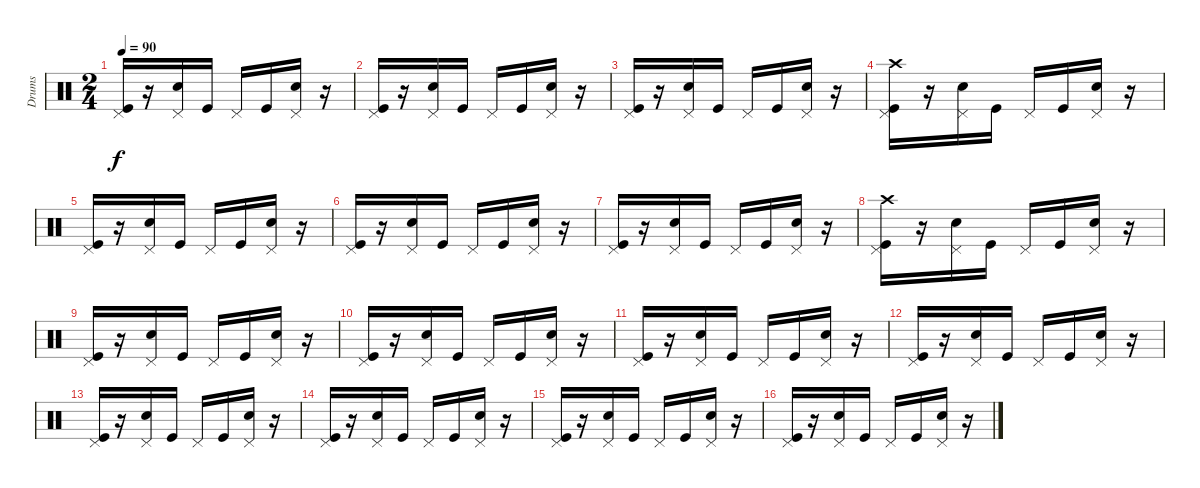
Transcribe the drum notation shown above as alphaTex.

\track ("Drums" "Drums") {instrument percussion}
\staff {score}
\articulation defaults
\ts (2 4)
\tempo 90
\clef neutral
\ks c
("Kick (hit)" "Pedal Hi-Hat (hit)").16{dy f} r.16 ("Snare (hit) 2" "Pedal Hi-Hat (hit)").16 "Kick (hit)".16 "Pedal Hi-Hat (hit)".16 "Kick (hit)".16 ("Snare (hit) 2" "Pedal Hi-Hat (hit)").16 r.16 |
("Kick (hit)" "Pedal Hi-Hat (hit)").16 r.16 ("Snare (hit) 2" "Pedal Hi-Hat (hit)").16 "Kick (hit)".16 "Pedal Hi-Hat (hit)".16 "Kick (hit)".16 ("Snare (hit) 2" "Pedal Hi-Hat (hit)").16 r.16 |
("Kick (hit)" "Pedal Hi-Hat (hit)").16 r.16 ("Snare (hit) 2" "Pedal Hi-Hat (hit)").16 "Kick (hit)".16 "Pedal Hi-Hat (hit)".16 "Kick (hit)".16 ("Snare (hit) 2" "Pedal Hi-Hat (hit)").16 r.16 |
("Crash high (hit)" "Kick (hit)" "Pedal Hi-Hat (hit)").16 r.16 ("Snare (hit) 2" "Pedal Hi-Hat (hit)").16 "Kick (hit)".16 "Pedal Hi-Hat (hit)".16 "Kick (hit)".16 ("Snare (hit) 2" "Pedal Hi-Hat (hit)").16 r.16 |
("Kick (hit)" "Pedal Hi-Hat (hit)").16 r.16 ("Snare (hit) 2" "Pedal Hi-Hat (hit)").16 "Kick (hit)".16 "Pedal Hi-Hat (hit)".16 "Kick (hit)".16 ("Snare (hit) 2" "Pedal Hi-Hat (hit)").16 r.16 |
("Kick (hit)" "Pedal Hi-Hat (hit)").16 r.16 ("Snare (hit) 2" "Pedal Hi-Hat (hit)").16 "Kick (hit)".16 "Pedal Hi-Hat (hit)".16 "Kick (hit)".16 ("Snare (hit) 2" "Pedal Hi-Hat (hit)").16 r.16 |
("Kick (hit)" "Pedal Hi-Hat (hit)").16 r.16 ("Snare (hit) 2" "Pedal Hi-Hat (hit)").16 "Kick (hit)".16 "Pedal Hi-Hat (hit)".16 "Kick (hit)".16 ("Snare (hit) 2" "Pedal Hi-Hat (hit)").16 r.16 |
("Crash high (hit)" "Kick (hit)" "Pedal Hi-Hat (hit)").16 r.16 ("Snare (hit) 2" "Pedal Hi-Hat (hit)").16 "Kick (hit)".16 "Pedal Hi-Hat (hit)".16 "Kick (hit)".16 ("Snare (hit) 2" "Pedal Hi-Hat (hit)").16 r.16 |
("Kick (hit)" "Pedal Hi-Hat (hit)").16 r.16 ("Snare (hit) 2" "Pedal Hi-Hat (hit)").16 "Kick (hit)".16 "Pedal Hi-Hat (hit)".16 "Kick (hit)".16 ("Snare (hit) 2" "Pedal Hi-Hat (hit)").16 r.16 |
("Kick (hit)" "Pedal Hi-Hat (hit)").16 r.16 ("Snare (hit) 2" "Pedal Hi-Hat (hit)").16 "Kick (hit)".16 "Pedal Hi-Hat (hit)".16 "Kick (hit)".16 ("Snare (hit) 2" "Pedal Hi-Hat (hit)").16 r.16 |
("Kick (hit)" "Pedal Hi-Hat (hit)").16 r.16 ("Snare (hit) 2" "Pedal Hi-Hat (hit)").16 "Kick (hit)".16 "Pedal Hi-Hat (hit)".16 "Kick (hit)".16 ("Snare (hit) 2" "Pedal Hi-Hat (hit)").16 r.16 |
("Kick (hit)" "Pedal Hi-Hat (hit)").16 r.16 ("Snare (hit) 2" "Pedal Hi-Hat (hit)").16 "Kick (hit)".16 "Pedal Hi-Hat (hit)".16 "Kick (hit)".16 ("Snare (hit) 2" "Pedal Hi-Hat (hit)").16 r.16 |
("Kick (hit)" "Pedal Hi-Hat (hit)").16 r.16 ("Snare (hit) 2" "Pedal Hi-Hat (hit)").16 "Kick (hit)".16 "Pedal Hi-Hat (hit)".16 "Kick (hit)".16 ("Snare (hit) 2" "Pedal Hi-Hat (hit)").16 r.16 |
("Kick (hit)" "Pedal Hi-Hat (hit)").16 r.16 ("Snare (hit) 2" "Pedal Hi-Hat (hit)").16 "Kick (hit)".16 "Pedal Hi-Hat (hit)".16 "Kick (hit)".16 ("Snare (hit) 2" "Pedal Hi-Hat (hit)").16 r.16 |
("Kick (hit)" "Pedal Hi-Hat (hit)").16 r.16 ("Snare (hit) 2" "Pedal Hi-Hat (hit)").16 "Kick (hit)".16 "Pedal Hi-Hat (hit)".16 "Kick (hit)".16 ("Snare (hit) 2" "Pedal Hi-Hat (hit)").16 r.16 |
("Kick (hit)" "Pedal Hi-Hat (hit)").16 r.16 ("Snare (hit) 2" "Pedal Hi-Hat (hit)").16 "Kick (hit)".16 "Pedal Hi-Hat (hit)".16 "Kick (hit)".16 ("Snare (hit) 2" "Pedal Hi-Hat (hit)").16 r.16
